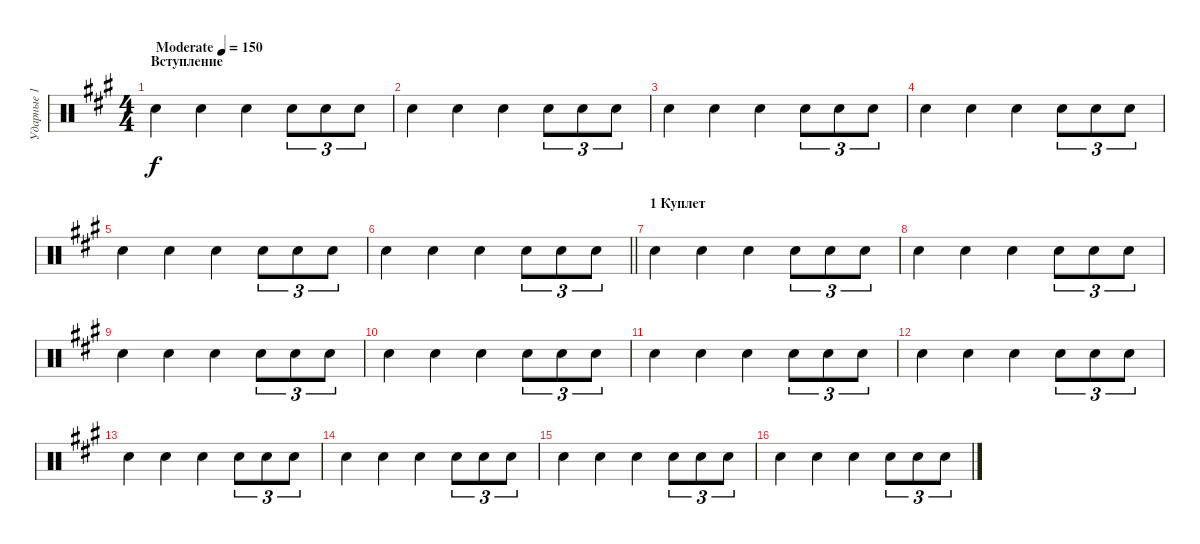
\track ("Ударные 1" "Ударные 1") {instrument percussion}
\staff {score}
\articulation defaults
\ts (4 4)
\section ("" "Вступление")
\tempo (150 "Moderate")
\clef neutral
\ks f#minor "Snare (hit) 2".4{dy f} "Snare (hit) 2".4 "Snare (hit) 2".4 "Snare (hit) 2".8{tu (3 2)} "Snare (hit) 2".8{tu (3 2)} "Snare (hit) 2".8{tu (3 2)}
|
"Snare (hit) 2".4 "Snare (hit) 2".4 "Snare (hit) 2".4 "Snare (hit) 2".8{tu (3 2)} "Snare (hit) 2".8{tu (3 2)} "Snare (hit) 2".8{tu (3 2)} |
"Snare (hit) 2".4 "Snare (hit) 2".4 "Snare (hit) 2".4 "Snare (hit) 2".8{tu (3 2)} "Snare (hit) 2".8{tu (3 2)} "Snare (hit) 2".8{tu (3 2)} |
"Snare (hit) 2".4 "Snare (hit) 2".4 "Snare (hit) 2".4 "Snare (hit) 2".8{tu (3 2)} "Snare (hit) 2".8{tu (3 2)} "Snare (hit) 2".8{tu (3 2)} |
"Snare (hit) 2".4 "Snare (hit) 2".4 "Snare (hit) 2".4 "Snare (hit) 2".8{tu (3 2)} "Snare (hit) 2".8{tu (3 2)} "Snare (hit) 2".8{tu (3 2)} |
\barLineRight lightlight "Snare (hit) 2".4 "Snare (hit) 2".4 "Snare (hit) 2".4 "Snare (hit) 2".8{tu (3 2)} "Snare (hit) 2".8{tu (3 2)} "Snare (hit) 2".8{tu (3 2)}
|
\section ("" "1 Куплет")
"Snare (hit) 2".4 "Snare (hit) 2".4 "Snare (hit) 2".4 "Snare (hit) 2".8{tu (3 2)} "Snare (hit) 2".8{tu (3 2)} "Snare (hit) 2".8{tu (3 2)} |
"Snare (hit) 2".4 "Snare (hit) 2".4 "Snare (hit) 2".4 "Snare (hit) 2".8{tu (3 2)} "Snare (hit) 2".8{tu (3 2)} "Snare (hit) 2".8{tu (3 2)} |
"Snare (hit) 2".4 "Snare (hit) 2".4 "Snare (hit) 2".4 "Snare (hit) 2".8{tu (3 2)} "Snare (hit) 2".8{tu (3 2)} "Snare (hit) 2".8{tu (3 2)} |
"Snare (hit) 2".4 "Snare (hit) 2".4 "Snare (hit) 2".4 "Snare (hit) 2".8{tu (3 2)} "Snare (hit) 2".8{tu (3 2)} "Snare (hit) 2".8{tu (3 2)} |
"Snare (hit) 2".4 "Snare (hit) 2".4 "Snare (hit) 2".4 "Snare (hit) 2".8{tu (3 2)} "Snare (hit) 2".8{tu (3 2)} "Snare (hit) 2".8{tu (3 2)} |
"Snare (hit) 2".4 "Snare (hit) 2".4 "Snare (hit) 2".4 "Snare (hit) 2".8{tu (3 2)} "Snare (hit) 2".8{tu (3 2)} "Snare (hit) 2".8{tu (3 2)} |
"Snare (hit) 2".4 "Snare (hit) 2".4 "Snare (hit) 2".4 "Snare (hit) 2".8{tu (3 2)} "Snare (hit) 2".8{tu (3 2)} "Snare (hit) 2".8{tu (3 2)} |
"Snare (hit) 2".4 "Snare (hit) 2".4 "Snare (hit) 2".4 "Snare (hit) 2".8{tu (3 2)} "Snare (hit) 2".8{tu (3 2)} "Snare (hit) 2".8{tu (3 2)} |
"Snare (hit) 2".4 "Snare (hit) 2".4 "Snare (hit) 2".4 "Snare (hit) 2".8{tu (3 2)} "Snare (hit) 2".8{tu (3 2)} "Snare (hit) 2".8{tu (3 2)} |
"Snare (hit) 2".4 "Snare (hit) 2".4 "Snare (hit) 2".4 "Snare (hit) 2".8{tu (3 2)} "Snare (hit) 2".8{tu (3 2)} "Snare (hit) 2".8{tu (3 2)}
